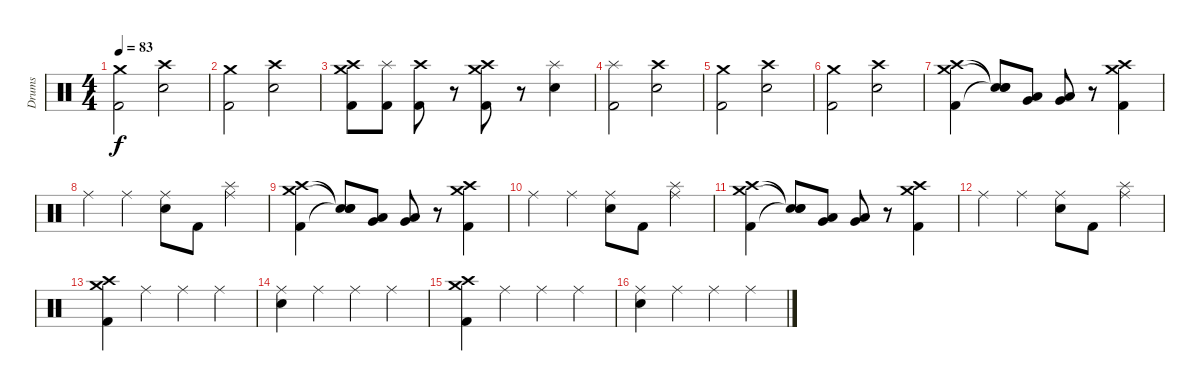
\track ("Drums" "Drums") {instrument percussion}
\staff {score}
\articulation defaults
\ts (4 4)
\tempo 83
\clef neutral
\ks c
("Crash medium (hit)" "Kick (hit) 2").2{dy f} ("Crash high (hit)" "Snare (hit) 2").2 |
("Crash medium (hit)" "Kick (hit) 2").2 ("Crash high (hit)" "Snare (hit) 2").2 |
("Crash medium (hit)" "Crash high (hit)" "Kick (hit) 2").8 ("Splash (hit)" "Kick (hit) 2").8 ("Crash high (hit)" "Kick (hit) 2").8 r.8 ("Crash medium (hit)" "Crash high (hit)" "Kick (hit) 2").8 r.8 ("Splash (hit)" "Snare (hit) 2").4 |
("Splash (hit)" "Kick (hit) 2").2 ("Crash high (hit)" "Snare (hit) 2").2 |
("Crash medium (hit)" "Kick (hit) 2").2 ("Crash high (hit)" "Snare (hit) 2").2 |
("Crash medium (hit)" "Kick (hit) 2").2 ("Crash high (hit)" "Snare (hit) 2").2 |
("Crash high (hit)" "Crash medium (hit)" "Kick (hit) 2").4 ("Snare (hit)"{t} "Snare (hit)"{t} "Snare (hit)"{t}).8 ("Low Tom (hit)" "Very Low Tom (hit)").8 ("Low Tom (hit)" "Very Low Tom (hit)").8 r.8 ("Crash high (hit)" "Crash medium (hit)" "Kick (hit) 2").4 |
"Ride (middle)".4 "Ride (middle)".4 ("Ride (middle)" "Snare (hit) 2").8 "Kick (hit) 2".8 ("Ride (middle)" "Splash (hit)").4 |
("Crash high (hit)" "Crash medium (hit)" "Kick (hit) 2").4 ("Snare (hit)"{t} "Snare (hit)"{t} "Snare (hit)"{t}).8 ("Low Tom (hit)" "Very Low Tom (hit)").8 ("Low Tom (hit)" "Very Low Tom (hit)").8 r.8 ("Crash high (hit)" "Crash medium (hit)" "Kick (hit) 2").4 |
"Ride (middle)".4 "Ride (middle)".4 ("Ride (middle)" "Snare (hit) 2").8 "Kick (hit) 2".8 ("Ride (middle)" "Splash (hit)").4 |
("Crash high (hit)" "Crash medium (hit)" "Kick (hit) 2").4 ("Snare (hit)"{t} "Snare (hit)"{t} "Snare (hit)"{t}).8 ("Low Tom (hit)" "Very Low Tom (hit)").8 ("Low Tom (hit)" "Very Low Tom (hit)").8 r.8 ("Crash high (hit)" "Crash medium (hit)" "Kick (hit) 2").4 |
"Ride (middle)".4 "Ride (middle)".4 ("Ride (middle)" "Snare (hit) 2").8 "Kick (hit) 2".8 ("Ride (middle)" "Splash (hit)").4 |
("Crash medium (hit)" "Crash high (hit)" "Kick (hit) 2").4 "Ride (middle)".4 "Ride (middle)".4 "Ride (middle)".4 |
("Ride (middle)" "Snare (hit) 2").4 "Ride (middle)".4 "Ride (middle)".4 "Ride (middle)".4 |
("Crash medium (hit)" "Crash high (hit)" "Kick (hit) 2").4 "Ride (middle)".4 "Ride (middle)".4 "Ride (middle)".4 |
("Ride (middle)" "Snare (hit) 2").4 "Ride (middle)".4 "Ride (middle)".4 "Ride (middle)".4
